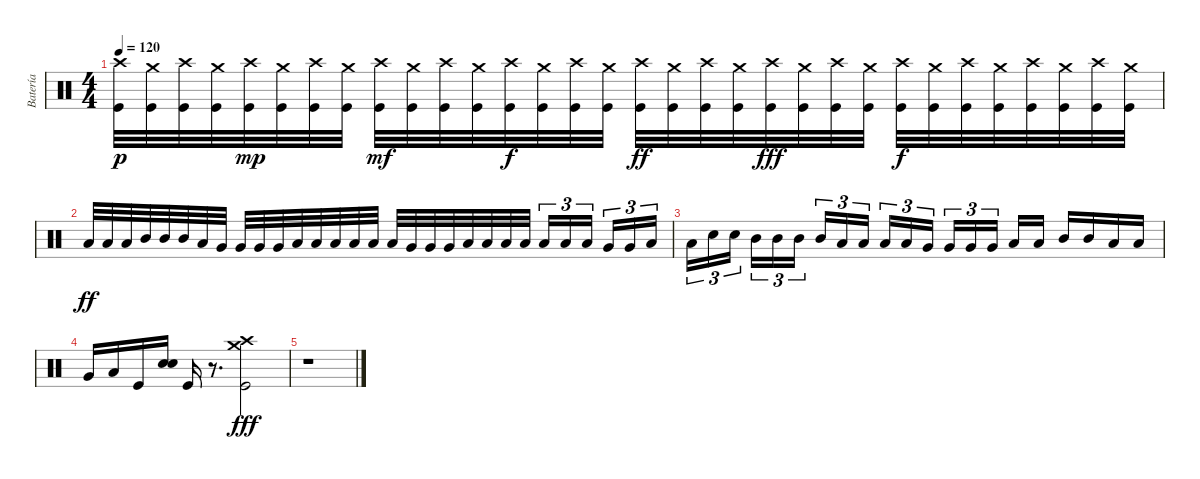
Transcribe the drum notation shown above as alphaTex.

\track ("Batería" "Batería") {instrument percussion}
\staff {score}
\articulation defaults
\ts (4 4)
\tempo 120
\clef neutral
\ks c
("Crash high (hit)" "Kick (hit)").32{dy p} ("Crash medium (hit)" "Kick (hit)").32 ("Crash high (hit)" "Kick (hit)").32 ("Crash medium (hit)" "Kick (hit)").32 ("Crash high (hit)" "Kick (hit)").32{dy mp} ("Crash medium (hit)" "Kick (hit)").32 ("Crash high (hit)" "Kick (hit)").32 ("Crash medium (hit)" "Kick (hit)").32 ("Crash high (hit)" "Kick (hit)").32{dy mf} ("Crash medium (hit)" "Kick (hit)").32 ("Crash high (hit)" "Kick (hit)").32 ("Crash medium (hit)" "Kick (hit)").32 ("Crash high (hit)" "Kick (hit)").32{dy f} ("Crash medium (hit)" "Kick (hit)").32 ("Crash high (hit)" "Kick (hit)").32 ("Crash medium (hit)" "Kick (hit)").32 ("Crash high (hit)" "Kick (hit)").32{dy ff} ("Crash medium (hit)" "Kick (hit)").32 ("Crash high (hit)" "Kick (hit)").32 ("Crash medium (hit)" "Kick (hit)").32 ("Crash high (hit)" "Kick (hit)").32{dy fff} ("Crash medium (hit)" "Kick (hit)").32 ("Crash high (hit)" "Kick (hit)").32 ("Crash medium (hit)" "Kick (hit)").32 ("Crash high (hit)" "Kick (hit)").32{dy f} ("Crash medium (hit)" "Kick (hit)").32 ("Crash high (hit)" "Kick (hit)").32 ("Crash medium (hit)" "Kick (hit)").32 ("Crash high (hit)" "Kick (hit)").32 ("Crash medium (hit)" "Kick (hit)").32 ("Crash high (hit)" "Kick (hit)").32 ("Crash medium (hit)" "Kick (hit)").32 |
"Low Tom (hit)".32{dy ff} "Low Tom (hit)".32 "Low Tom (hit)".32 "Mid Tom (hit)".32 "Mid Tom (hit)".32 "Mid Tom (hit)".32 "Low Tom (hit)".32 "Very Low Tom (hit)".32 "Very Low Tom (hit)".32 "Very Low Tom (hit)".32 "Very Low Tom (hit)".32 "Low Floor Tom (hit)".32 "Low Floor Tom (hit)".32 "Low Floor Tom (hit)".32 "Low Tom (hit)".32 "Low Tom (hit)".32 "Low Tom (hit)".32 "Very Low Tom (hit)".32 "Very Low Tom (hit)".32 "Very Low Tom (hit)".32 "Low Floor Tom (hit)".32 "Low Floor Tom (hit)".32 "Low Floor Tom (hit)".32 "Low Floor Tom (hit)".32 "Low Floor Tom (hit)".16{tu (3 2)} "Low Tom (hit)".16{tu (3 2)} "Low Tom (hit)".16{tu (3 2) beam splitsecondary} "Very Low Tom (hit)".16{tu (3 2)} "Very Low Tom (hit)".16{tu (3 2)} "Low Floor Tom (hit)".16{tu (3 2)} |
"Low Floor Tom (hit)".16{tu (3 2)} "Snare (hit) 2".16{tu (3 2)} "Snare (hit) 2".16{tu (3 2) beam splitsecondary} "Mid Tom (hit)".16{tu (3 2)} "Mid Tom (hit)".16{tu (3 2)} "Mid Tom (hit)".16{tu (3 2)} "Mid Tom (hit)".16{tu (3 2)} "Low Tom (hit)".16{tu (3 2)} "Low Tom (hit)".16{tu (3 2) beam splitsecondary} "Low Tom (hit)".16{tu (3 2)} "Low Tom (hit)".16{tu (3 2)} "Very Low Tom (hit)".16{tu (3 2)} "Very Low Tom (hit)".16{tu (3 2)} "Very Low Tom (hit)".16{tu (3 2)} "Very Low Tom (hit)".16{tu (3 2) beam splitsecondary} "Low Floor Tom (hit)".16 "Low Floor Tom (hit)".16 "Mid Tom (hit)".16 "Mid Tom (hit)".16 "Low Tom (hit)".16 "Low Tom (hit)".16 |
"Very Low Tom (hit)".16 "Low Floor Tom (hit)".16 "Kick (hit)".16 ("Snare (hit) 2" "Snare (hit) 2").16 "Kick (hit)".16 r.8{d} ("Crash medium (hit)" "Crash high (hit)" "Kick (hit)").2{dy fff} |
r.1
